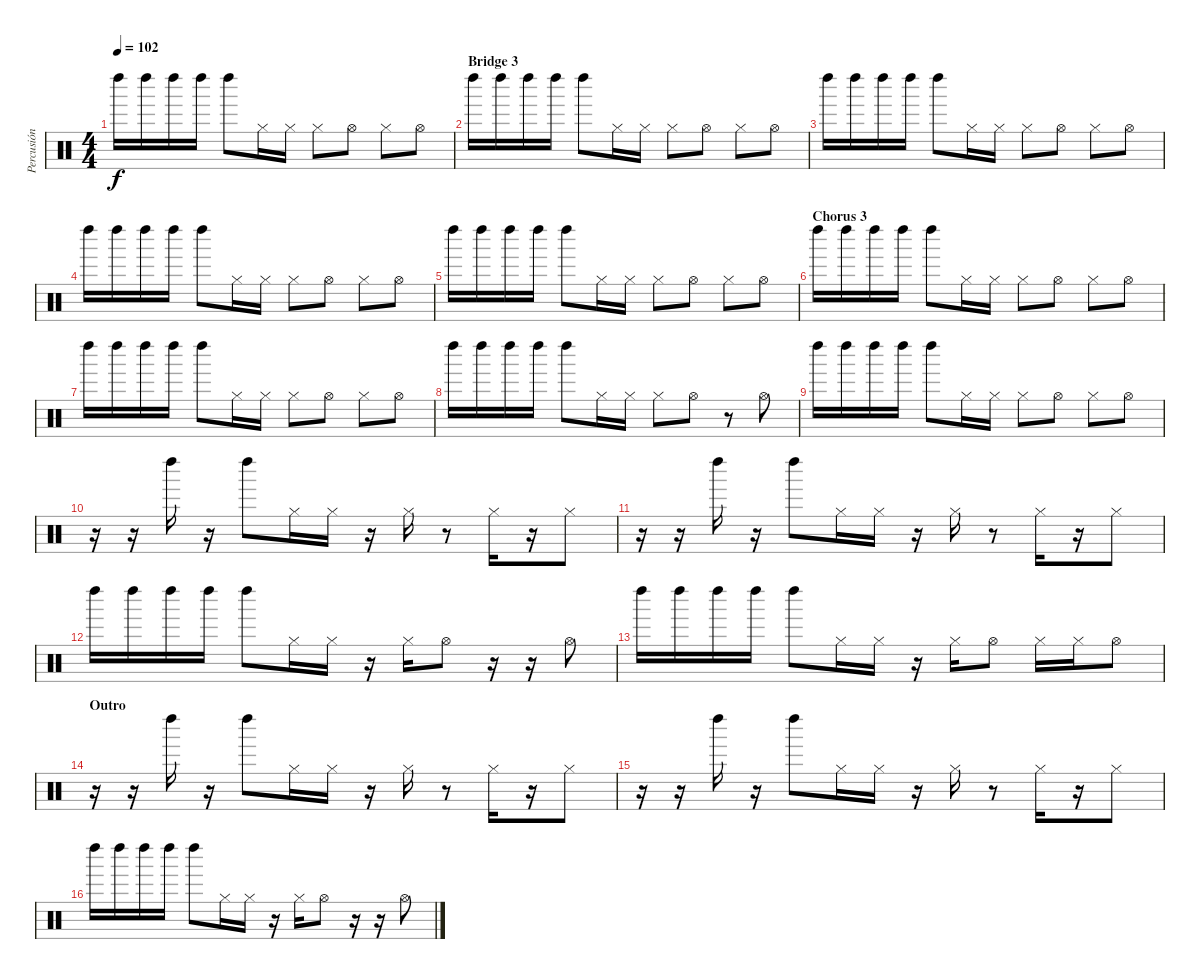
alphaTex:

\track ("Percusión" "Percusión") {instrument percussion}
\staff {score}
\articulation defaults
\ts (4 4)
\tempo 102
\clef neutral
\ks c "Left Maraca (hit)".16{dy f} "Left Maraca (hit)".16 "Left Maraca (hit)".16 "Left Maraca (hit)".16 "Left Maraca (hit)".8 "Hi-Hat (closed)".16 "Hi-Hat (closed)".16 "Hi-Hat (closed)".8 "Hi-Hat (open)".8 "Hi-Hat (closed)".8 "Hi-Hat (open)".8
|
\section ("" "Bridge 3")
"Left Maraca (hit)".16 "Left Maraca (hit)".16 "Left Maraca (hit)".16 "Left Maraca (hit)".16 "Left Maraca (hit)".8 "Hi-Hat (closed)".16 "Hi-Hat (closed)".16 "Hi-Hat (closed)".8 "Hi-Hat (open)".8 "Hi-Hat (closed)".8 "Hi-Hat (open)".8 |
"Left Maraca (hit)".16 "Left Maraca (hit)".16 "Left Maraca (hit)".16 "Left Maraca (hit)".16 "Left Maraca (hit)".8 "Hi-Hat (closed)".16 "Hi-Hat (closed)".16 "Hi-Hat (closed)".8 "Hi-Hat (open)".8 "Hi-Hat (closed)".8 "Hi-Hat (open)".8 |
"Left Maraca (hit)".16 "Left Maraca (hit)".16 "Left Maraca (hit)".16 "Left Maraca (hit)".16 "Left Maraca (hit)".8 "Hi-Hat (closed)".16 "Hi-Hat (closed)".16 "Hi-Hat (closed)".8 "Hi-Hat (open)".8 "Hi-Hat (closed)".8 "Hi-Hat (open)".8 |
"Left Maraca (hit)".16 "Left Maraca (hit)".16 "Left Maraca (hit)".16 "Left Maraca (hit)".16 "Left Maraca (hit)".8 "Hi-Hat (closed)".16 "Hi-Hat (closed)".16 "Hi-Hat (closed)".8 "Hi-Hat (open)".8 "Hi-Hat (closed)".8 "Hi-Hat (open)".8 |
\section ("" "Chorus 3")
"Left Maraca (hit)".16 "Left Maraca (hit)".16 "Left Maraca (hit)".16 "Left Maraca (hit)".16 "Left Maraca (hit)".8 "Hi-Hat (closed)".16 "Hi-Hat (closed)".16 "Hi-Hat (closed)".8 "Hi-Hat (open)".8 "Hi-Hat (closed)".8 "Hi-Hat (open)".8 |
"Left Maraca (hit)".16 "Left Maraca (hit)".16 "Left Maraca (hit)".16 "Left Maraca (hit)".16 "Left Maraca (hit)".8 "Hi-Hat (closed)".16 "Hi-Hat (closed)".16 "Hi-Hat (closed)".8 "Hi-Hat (open)".8 "Hi-Hat (closed)".8 "Hi-Hat (open)".8 |
"Left Maraca (hit)".16 "Left Maraca (hit)".16 "Left Maraca (hit)".16 "Left Maraca (hit)".16 "Left Maraca (hit)".8 "Hi-Hat (closed)".16 "Hi-Hat (closed)".16 "Hi-Hat (closed)".8 "Hi-Hat (open)".8 r.8 "Hi-Hat (open)".8 |
"Left Maraca (hit)".16 "Left Maraca (hit)".16 "Left Maraca (hit)".16 "Left Maraca (hit)".16 "Left Maraca (hit)".8 "Hi-Hat (closed)".16 "Hi-Hat (closed)".16 "Hi-Hat (closed)".8 "Hi-Hat (open)".8 "Hi-Hat (closed)".8 "Hi-Hat (open)".8 |
r.16 r.16 "Left Maraca (hit)".16 r.16 "Left Maraca (hit)".8 "Hi-Hat (closed)".16 "Hi-Hat (closed)".16 r.16 "Hi-Hat (closed)".16 r.8 "Hi-Hat (closed)".16 r.16 "Hi-Hat (closed)".8 |
r.16 r.16 "Left Maraca (hit)".16 r.16 "Left Maraca (hit)".8 "Hi-Hat (closed)".16 "Hi-Hat (closed)".16 r.16 "Hi-Hat (closed)".16 r.8 "Hi-Hat (closed)".16 r.16 "Hi-Hat (closed)".8 |
"Left Maraca (hit)".16 "Left Maraca (hit)".16 "Left Maraca (hit)".16 "Left Maraca (hit)".16 "Left Maraca (hit)".8 "Hi-Hat (closed)".16 "Hi-Hat (closed)".16 r.16 "Hi-Hat (closed)".16 "Hi-Hat (open)".8 r.16 r.16 "Hi-Hat (open)".8 |
"Left Maraca (hit)".16 "Left Maraca (hit)".16 "Left Maraca (hit)".16 "Left Maraca (hit)".16 "Left Maraca (hit)".8 "Hi-Hat (closed)".16 "Hi-Hat (closed)".16 r.16 "Hi-Hat (closed)".16 "Hi-Hat (open)".8 "Hi-Hat (closed)".16 "Hi-Hat (closed)".16 "Hi-Hat (open)".8 |
\section ("" "Outro")
r.16 r.16 "Left Maraca (hit)".16 r.16 "Left Maraca (hit)".8 "Hi-Hat (closed)".16 "Hi-Hat (closed)".16 r.16 "Hi-Hat (closed)".16 r.8 "Hi-Hat (closed)".16 r.16 "Hi-Hat (closed)".8 |
r.16 r.16 "Left Maraca (hit)".16 r.16 "Left Maraca (hit)".8 "Hi-Hat (closed)".16 "Hi-Hat (closed)".16 r.16 "Hi-Hat (closed)".16 r.8 "Hi-Hat (closed)".16 r.16 "Hi-Hat (closed)".8 |
"Left Maraca (hit)".16 "Left Maraca (hit)".16 "Left Maraca (hit)".16 "Left Maraca (hit)".16 "Left Maraca (hit)".8 "Hi-Hat (closed)".16 "Hi-Hat (closed)".16 r.16 "Hi-Hat (closed)".16 "Hi-Hat (open)".8 r.16 r.16 "Hi-Hat (open)".8
